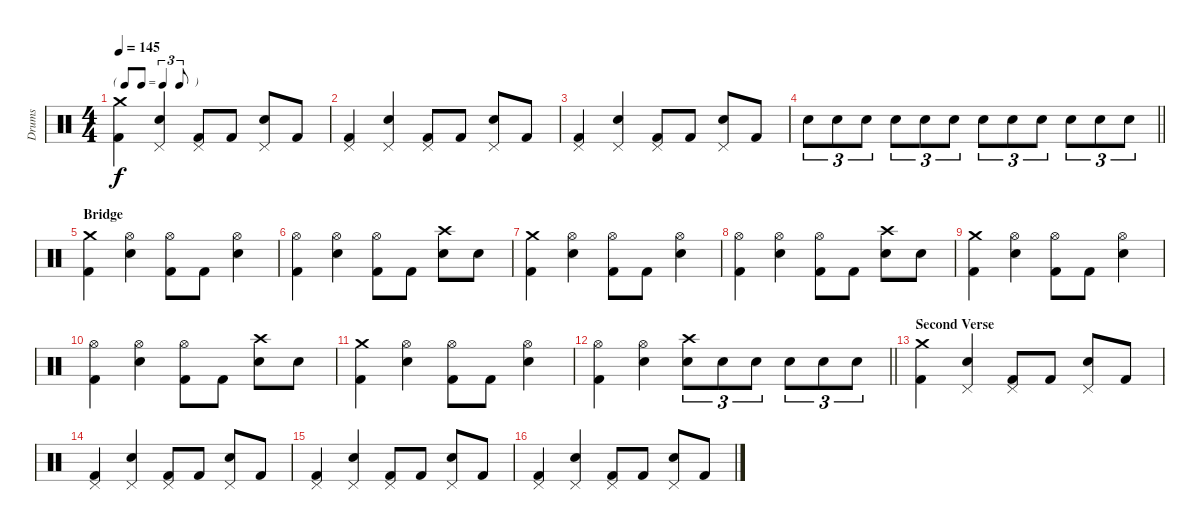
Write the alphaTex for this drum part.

\track ("Drums" "Drums") {instrument percussion}
\staff {score}
\articulation defaults
\ts (4 4)
\tf triplet8th
\tempo 145
\clef neutral
\ks c
("Crash medium (hit)" "Kick (hit) 2").4{dy f} ("Pedal Hi-Hat (hit)" "Electric Snare (hit)").4 ("Pedal Hi-Hat (hit)" "Kick (hit) 2").8 "Kick (hit) 2".8 ("Pedal Hi-Hat (hit)" "Electric Snare (hit)").8 "Kick (hit) 2".8 |
("Pedal Hi-Hat (hit)" "Kick (hit) 2").4 ("Pedal Hi-Hat (hit)" "Electric Snare (hit)").4 ("Pedal Hi-Hat (hit)" "Kick (hit) 2").8 "Kick (hit) 2".8 ("Pedal Hi-Hat (hit)" "Electric Snare (hit)").8 "Kick (hit) 2".8 |
("Pedal Hi-Hat (hit)" "Kick (hit) 2").4 ("Pedal Hi-Hat (hit)" "Electric Snare (hit)").4 ("Pedal Hi-Hat (hit)" "Kick (hit) 2").8 "Kick (hit) 2".8 ("Pedal Hi-Hat (hit)" "Electric Snare (hit)").8 "Kick (hit) 2".8 |
\barLineRight lightlight "Electric Snare (hit)".8{tu (3 2)} "Electric Snare (hit)".8{tu (3 2)} "Electric Snare (hit)".8{tu (3 2)} "Electric Snare (hit)".8{tu (3 2)} "Electric Snare (hit)".8{tu (3 2)} "Electric Snare (hit)".8{tu (3 2)} "Electric Snare (hit)".8{tu (3 2)} "Electric Snare (hit)".8{tu (3 2)} "Electric Snare (hit)".8{tu (3 2)} "Electric Snare (hit)".8{tu (3 2)} "Electric Snare (hit)".8{tu (3 2)} "Electric Snare (hit)".8{tu (3 2)}
|
\section ("" "Bridge")
("Crash medium (hit)" "Kick (hit) 2").4 ("Hi-Hat (open)" "Electric Snare (hit)").4 ("Hi-Hat (open)" "Kick (hit) 2").8 "Kick (hit) 2".8 ("Hi-Hat (open)" "Electric Snare (hit)").4 |
("Hi-Hat (open)" "Kick (hit) 2").4 ("Hi-Hat (open)" "Electric Snare (hit)").4 ("Hi-Hat (open)" "Kick (hit) 2").8 "Kick (hit) 2".8 ("Crash high (hit)" "Electric Snare (hit)").8 "Electric Snare (hit)".8 |
("Crash medium (hit)" "Kick (hit) 2").4 ("Hi-Hat (open)" "Electric Snare (hit)").4 ("Hi-Hat (open)" "Kick (hit) 2").8 "Kick (hit) 2".8 ("Hi-Hat (open)" "Electric Snare (hit)").4 |
("Hi-Hat (open)" "Kick (hit) 2").4 ("Hi-Hat (open)" "Electric Snare (hit)").4 ("Hi-Hat (open)" "Kick (hit) 2").8 "Kick (hit) 2".8 ("Crash high (hit)" "Electric Snare (hit)").8 "Electric Snare (hit)".8 |
("Crash medium (hit)" "Kick (hit) 2").4 ("Hi-Hat (open)" "Electric Snare (hit)").4 ("Hi-Hat (open)" "Kick (hit) 2").8 "Kick (hit) 2".8 ("Hi-Hat (open)" "Electric Snare (hit)").4 |
("Hi-Hat (open)" "Kick (hit) 2").4 ("Hi-Hat (open)" "Electric Snare (hit)").4 ("Hi-Hat (open)" "Kick (hit) 2").8 "Kick (hit) 2".8 ("Crash high (hit)" "Electric Snare (hit)").8 "Electric Snare (hit)".8 |
("Crash medium (hit)" "Kick (hit) 2").4 ("Hi-Hat (open)" "Electric Snare (hit)").4 ("Hi-Hat (open)" "Kick (hit) 2").8 "Kick (hit) 2".8 ("Hi-Hat (open)" "Electric Snare (hit)").4 |
\barLineRight lightlight
("Hi-Hat (open)" "Kick (hit) 2").4 ("Hi-Hat (open)" "Electric Snare (hit)").4 ("Crash high (hit)" "Electric Snare (hit)").8{tu (3 2)} "Electric Snare (hit)".8{tu (3 2)} "Electric Snare (hit)".8{tu (3 2)} "Electric Snare (hit)".8{tu (3 2)} "Electric Snare (hit)".8{tu (3 2)} "Electric Snare (hit)".8{tu (3 2)} |
\section ("" "Second Verse")
("Crash medium (hit)" "Kick (hit) 2").4 ("Pedal Hi-Hat (hit)" "Electric Snare (hit)").4 ("Pedal Hi-Hat (hit)" "Kick (hit) 2").8 "Kick (hit) 2".8 ("Pedal Hi-Hat (hit)" "Electric Snare (hit)").8 "Kick (hit) 2".8 |
("Pedal Hi-Hat (hit)" "Kick (hit) 2").4 ("Pedal Hi-Hat (hit)" "Electric Snare (hit)").4 ("Pedal Hi-Hat (hit)" "Kick (hit) 2").8 "Kick (hit) 2".8 ("Pedal Hi-Hat (hit)" "Electric Snare (hit)").8 "Kick (hit) 2".8 |
("Pedal Hi-Hat (hit)" "Kick (hit) 2").4 ("Pedal Hi-Hat (hit)" "Electric Snare (hit)").4 ("Pedal Hi-Hat (hit)" "Kick (hit) 2").8 "Kick (hit) 2".8 ("Pedal Hi-Hat (hit)" "Electric Snare (hit)").8 "Kick (hit) 2".8 |
("Pedal Hi-Hat (hit)" "Kick (hit) 2").4 ("Pedal Hi-Hat (hit)" "Electric Snare (hit)").4 ("Pedal Hi-Hat (hit)" "Kick (hit) 2").8 "Kick (hit) 2".8 ("Pedal Hi-Hat (hit)" "Electric Snare (hit)").8 "Kick (hit) 2".8
